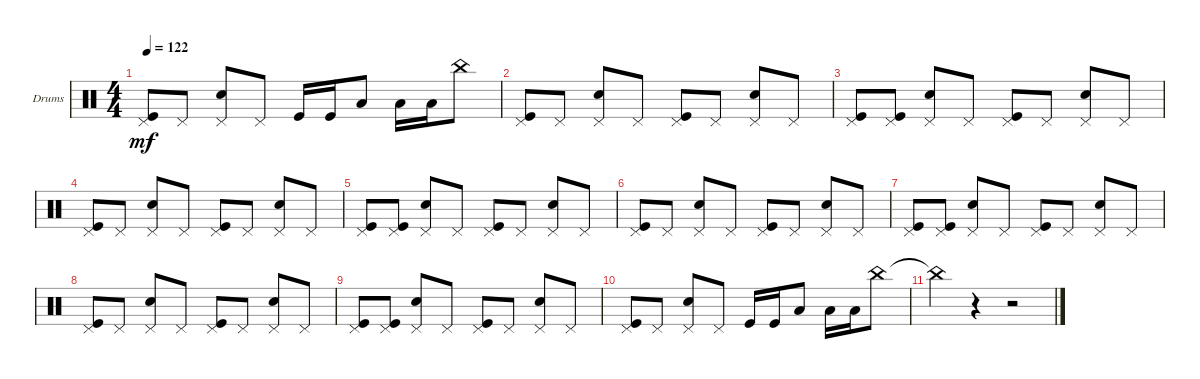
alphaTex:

\defaultSystemsLayout 4
\bracketExtendMode groupsimilarinstruments
\firstSystemTrackNameOrientation horizontal
\otherSystemsTrackNameOrientation horizontal
\track ("Drums" "Drums") {instrument percussion}
\staff {score}
\articulation defaults
\ts (4 4)
\tempo 122
\clef neutral
\scale
0.333333
\ks c
("Pedal Hi-Hat (hit)" "Kick (hit)").8{dy mf} "Pedal Hi-Hat (hit)".8 ("Pedal Hi-Hat (hit)" "Snare (hit) 2").8 "Pedal Hi-Hat (hit)".8 "Kick (hit)".16 "Kick (hit)".16 "Low Tom (hit)".8 "Low Tom (hit)".16 "Low Tom (hit)".16 "China (hit)".8 |
\scale
0.333333 ("Pedal Hi-Hat (hit)" "Kick (hit)").8 "Pedal Hi-Hat (hit)".8 ("Pedal Hi-Hat (hit)" "Snare (hit) 2").8 "Pedal Hi-Hat (hit)".8 ("Pedal Hi-Hat (hit)" "Kick (hit)").8 "Pedal Hi-Hat (hit)".8 ("Pedal Hi-Hat (hit)" "Snare (hit) 2").8 "Pedal Hi-Hat (hit)".8 |
("Pedal Hi-Hat (hit)" "Kick (hit)").8 ("Pedal Hi-Hat (hit)" "Kick (hit)").8 ("Pedal Hi-Hat (hit)" "Snare (hit) 2").8 "Pedal Hi-Hat (hit)".8 ("Pedal Hi-Hat (hit)" "Kick (hit)").8 "Pedal Hi-Hat (hit)".8 ("Pedal Hi-Hat (hit)" "Snare (hit) 2").8 "Pedal Hi-Hat (hit)".8 |
\scale
0.333333 ("Pedal Hi-Hat (hit)" "Kick (hit)").8 "Pedal Hi-Hat (hit)".8 ("Pedal Hi-Hat (hit)" "Snare (hit) 2").8 "Pedal Hi-Hat (hit)".8 ("Pedal Hi-Hat (hit)" "Kick (hit)").8 "Pedal Hi-Hat (hit)".8 ("Pedal Hi-Hat (hit)" "Snare (hit) 2").8 "Pedal Hi-Hat (hit)".8 |
\scale
0.333333 ("Pedal Hi-Hat (hit)" "Kick (hit)").8 ("Pedal Hi-Hat (hit)" "Kick (hit)").8 ("Pedal Hi-Hat (hit)" "Snare (hit) 2").8 "Pedal Hi-Hat (hit)".8 ("Pedal Hi-Hat (hit)" "Kick (hit)").8 "Pedal Hi-Hat (hit)".8 ("Pedal Hi-Hat (hit)" "Snare (hit) 2").8 "Pedal Hi-Hat (hit)".8 |
\scale
0.333333 ("Pedal Hi-Hat (hit)" "Kick (hit)").8 "Pedal Hi-Hat (hit)".8 ("Pedal Hi-Hat (hit)" "Snare (hit) 2").8 "Pedal Hi-Hat (hit)".8 ("Pedal Hi-Hat (hit)" "Kick (hit)").8 "Pedal Hi-Hat (hit)".8 ("Pedal Hi-Hat (hit)" "Snare (hit) 2").8 "Pedal Hi-Hat (hit)".8 |
("Pedal Hi-Hat (hit)" "Kick (hit)").8 ("Pedal Hi-Hat (hit)" "Kick (hit)").8 ("Pedal Hi-Hat (hit)" "Snare (hit) 2").8 "Pedal Hi-Hat (hit)".8 ("Pedal Hi-Hat (hit)" "Kick (hit)").8 "Pedal Hi-Hat (hit)".8 ("Pedal Hi-Hat (hit)" "Snare (hit) 2").8 "Pedal Hi-Hat (hit)".8 |
("Pedal Hi-Hat (hit)" "Kick (hit)").8 "Pedal Hi-Hat (hit)".8 ("Pedal Hi-Hat (hit)" "Snare (hit) 2").8 "Pedal Hi-Hat (hit)".8 ("Pedal Hi-Hat (hit)" "Kick (hit)").8 "Pedal Hi-Hat (hit)".8 ("Pedal Hi-Hat (hit)" "Snare (hit) 2").8 "Pedal Hi-Hat (hit)".8 |
("Pedal Hi-Hat (hit)" "Kick (hit)").8 ("Pedal Hi-Hat (hit)" "Kick (hit)").8 ("Pedal Hi-Hat (hit)" "Snare (hit) 2").8 "Pedal Hi-Hat (hit)".8 ("Pedal Hi-Hat (hit)" "Kick (hit)").8 "Pedal Hi-Hat (hit)".8 ("Pedal Hi-Hat (hit)" "Snare (hit) 2").8 "Pedal Hi-Hat (hit)".8 |
("Pedal Hi-Hat (hit)" "Kick (hit)").8 "Pedal Hi-Hat (hit)".8 ("Pedal Hi-Hat (hit)" "Snare (hit) 2").8 "Pedal Hi-Hat (hit)".8 "Kick (hit)".16 "Kick (hit)".16 "Low Tom (hit)".8 "Low Tom (hit)".16 "Low Tom (hit)".16 "China (hit)".8 |
"China (hit)"{t}.4 r.4 r.2
